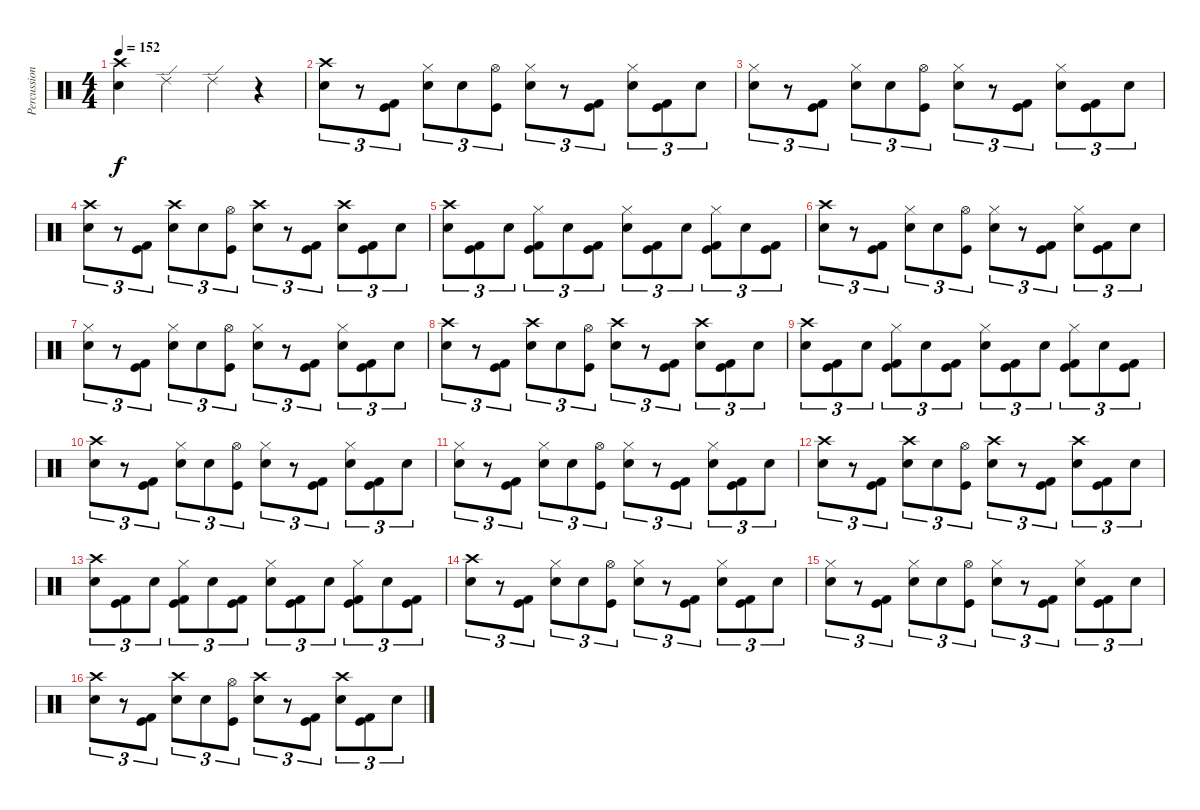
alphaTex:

\track ("Percussion" "Percussion") {instrument percussion}
\staff {score}
\articulation defaults
\ts (4 4)
\tempo 152
\clef neutral
\ks c
("Crash high (hit)" "Electric Snare (hit)").4{dy f} "Ride (edge) 2".4 "Ride (edge) 2".4 r.4 |
("Crash high (hit)" "Electric Snare (hit)").8{tu (3 2)} r.8{tu (3 2)} ("Kick (hit) 2" "Kick (hit)").8{tu (3 2)} ("Hi-Hat (closed)" "Electric Snare (hit)").8{tu (3 2)} "Electric Snare (hit)".8{tu (3 2)} ("Hi-Hat (open)" "Kick (hit)").8{tu (3 2)} ("Hi-Hat (closed)" "Electric Snare (hit)").8{tu (3 2)} r.8{tu (3 2)} ("Kick (hit) 2" "Kick (hit)").8{tu (3 2)} ("Hi-Hat (closed)" "Electric Snare (hit)").8{tu (3 2)} ("Kick (hit) 2" "Kick (hit)").8{tu (3 2)} "Electric Snare (hit)".8{tu (3 2)} |
("Hi-Hat (closed)" "Electric Snare (hit)").8{tu (3 2)} r.8{tu (3 2)} ("Kick (hit) 2" "Kick (hit)").8{tu (3 2)} ("Hi-Hat (closed)" "Electric Snare (hit)").8{tu (3 2)} "Electric Snare (hit)".8{tu (3 2)} ("Hi-Hat (open)" "Kick (hit)").8{tu (3 2)} ("Hi-Hat (closed)" "Electric Snare (hit)").8{tu (3 2)} r.8{tu (3 2)} ("Kick (hit) 2" "Kick (hit)").8{tu (3 2)} ("Hi-Hat (closed)" "Electric Snare (hit)").8{tu (3 2)} ("Kick (hit) 2" "Kick (hit)").8{tu (3 2)} "Electric Snare (hit)".8{tu (3 2)} |
("Crash high (hit)" "Electric Snare (hit)").8{tu (3 2)} r.8{tu (3 2)} ("Kick (hit) 2" "Kick (hit)").8{tu (3 2)} ("Crash high (hit)" "Electric Snare (hit)").8{tu (3 2)} "Electric Snare (hit)".8{tu (3 2)} ("Hi-Hat (open)" "Kick (hit)").8{tu (3 2)} ("Crash high (hit)" "Electric Snare (hit)").8{tu (3 2)} r.8{tu (3 2)} ("Kick (hit) 2" "Kick (hit)").8{tu (3 2)} ("Crash high (hit)" "Electric Snare (hit)").8{tu (3 2)} ("Kick (hit) 2" "Kick (hit)").8{tu (3 2)} "Electric Snare (hit)".8{tu (3 2)} |
("Crash high (hit)" "Electric Snare (hit)").8{tu (3 2)} ("Kick (hit) 2" "Kick (hit)").8{tu (3 2)} "Electric Snare (hit)".8{tu (3 2)} ("Hi-Hat (closed)" "Kick (hit) 2" "Kick (hit)").8{tu (3 2)} "Electric Snare (hit)".8{tu (3 2)} ("Kick (hit) 2" "Kick (hit)").8{tu (3 2)} ("Hi-Hat (closed)" "Electric Snare (hit)").8{tu (3 2)} ("Kick (hit) 2" "Kick (hit)").8{tu (3 2)} "Electric Snare (hit)".8{tu (3 2)} ("Hi-Hat (closed)" "Kick (hit) 2" "Kick (hit)").8{tu (3 2)} "Electric Snare (hit)".8{tu (3 2)} ("Kick (hit) 2" "Kick (hit)").8{tu (3 2)} |
("Crash high (hit)" "Electric Snare (hit)").8{tu (3 2)} r.8{tu (3 2)} ("Kick (hit) 2" "Kick (hit)").8{tu (3 2)} ("Hi-Hat (closed)" "Electric Snare (hit)").8{tu (3 2)} "Electric Snare (hit)".8{tu (3 2)} ("Hi-Hat (open)" "Kick (hit)").8{tu (3 2)} ("Hi-Hat (closed)" "Electric Snare (hit)").8{tu (3 2)} r.8{tu (3 2)} ("Kick (hit) 2" "Kick (hit)").8{tu (3 2)} ("Hi-Hat (closed)" "Electric Snare (hit)").8{tu (3 2)} ("Kick (hit) 2" "Kick (hit)").8{tu (3 2)} "Electric Snare (hit)".8{tu (3 2)} |
("Hi-Hat (closed)" "Electric Snare (hit)").8{tu (3 2)} r.8{tu (3 2)} ("Kick (hit) 2" "Kick (hit)").8{tu (3 2)} ("Hi-Hat (closed)" "Electric Snare (hit)").8{tu (3 2)} "Electric Snare (hit)".8{tu (3 2)} ("Hi-Hat (open)" "Kick (hit)").8{tu (3 2)} ("Hi-Hat (closed)" "Electric Snare (hit)").8{tu (3 2)} r.8{tu (3 2)} ("Kick (hit) 2" "Kick (hit)").8{tu (3 2)} ("Hi-Hat (closed)" "Electric Snare (hit)").8{tu (3 2)} ("Kick (hit) 2" "Kick (hit)").8{tu (3 2)} "Electric Snare (hit)".8{tu (3 2)} |
("Crash high (hit)" "Electric Snare (hit)").8{tu (3 2)} r.8{tu (3 2)} ("Kick (hit) 2" "Kick (hit)").8{tu (3 2)} ("Crash high (hit)" "Electric Snare (hit)").8{tu (3 2)} "Electric Snare (hit)".8{tu (3 2)} ("Hi-Hat (open)" "Kick (hit)").8{tu (3 2)} ("Crash high (hit)" "Electric Snare (hit)").8{tu (3 2)} r.8{tu (3 2)} ("Kick (hit) 2" "Kick (hit)").8{tu (3 2)} ("Crash high (hit)" "Electric Snare (hit)").8{tu (3 2)} ("Kick (hit) 2" "Kick (hit)").8{tu (3 2)} "Electric Snare (hit)".8{tu (3 2)} |
("Crash high (hit)" "Electric Snare (hit)").8{tu (3 2)} ("Kick (hit) 2" "Kick (hit)").8{tu (3 2)} "Electric Snare (hit)".8{tu (3 2)} ("Hi-Hat (closed)" "Kick (hit) 2" "Kick (hit)").8{tu (3 2)} "Electric Snare (hit)".8{tu (3 2)} ("Kick (hit) 2" "Kick (hit)").8{tu (3 2)} ("Hi-Hat (closed)" "Electric Snare (hit)").8{tu (3 2)} ("Kick (hit) 2" "Kick (hit)").8{tu (3 2)} "Electric Snare (hit)".8{tu (3 2)} ("Hi-Hat (closed)" "Kick (hit) 2" "Kick (hit)").8{tu (3 2)} "Electric Snare (hit)".8{tu (3 2)} ("Kick (hit) 2" "Kick (hit)").8{tu (3 2)} |
("Crash high (hit)" "Electric Snare (hit)").8{tu (3 2)} r.8{tu (3 2)} ("Kick (hit) 2" "Kick (hit)").8{tu (3 2)} ("Hi-Hat (closed)" "Electric Snare (hit)").8{tu (3 2)} "Electric Snare (hit)".8{tu (3 2)} ("Hi-Hat (open)" "Kick (hit)").8{tu (3 2)} ("Hi-Hat (closed)" "Electric Snare (hit)").8{tu (3 2)} r.8{tu (3 2)} ("Kick (hit) 2" "Kick (hit)").8{tu (3 2)} ("Hi-Hat (closed)" "Electric Snare (hit)").8{tu (3 2)} ("Kick (hit) 2" "Kick (hit)").8{tu (3 2)} "Electric Snare (hit)".8{tu (3 2)} |
("Hi-Hat (closed)" "Electric Snare (hit)").8{tu (3 2)} r.8{tu (3 2)} ("Kick (hit) 2" "Kick (hit)").8{tu (3 2)} ("Hi-Hat (closed)" "Electric Snare (hit)").8{tu (3 2)} "Electric Snare (hit)".8{tu (3 2)} ("Hi-Hat (open)" "Kick (hit)").8{tu (3 2)} ("Hi-Hat (closed)" "Electric Snare (hit)").8{tu (3 2)} r.8{tu (3 2)} ("Kick (hit) 2" "Kick (hit)").8{tu (3 2)} ("Hi-Hat (closed)" "Electric Snare (hit)").8{tu (3 2)} ("Kick (hit) 2" "Kick (hit)").8{tu (3 2)} "Electric Snare (hit)".8{tu (3 2)} |
("Crash high (hit)" "Electric Snare (hit)").8{tu (3 2)} r.8{tu (3 2)} ("Kick (hit) 2" "Kick (hit)").8{tu (3 2)} ("Crash high (hit)" "Electric Snare (hit)").8{tu (3 2)} "Electric Snare (hit)".8{tu (3 2)} ("Hi-Hat (open)" "Kick (hit)").8{tu (3 2)} ("Crash high (hit)" "Electric Snare (hit)").8{tu (3 2)} r.8{tu (3 2)} ("Kick (hit) 2" "Kick (hit)").8{tu (3 2)} ("Crash high (hit)" "Electric Snare (hit)").8{tu (3 2)} ("Kick (hit) 2" "Kick (hit)").8{tu (3 2)} "Electric Snare (hit)".8{tu (3 2)} |
("Crash high (hit)" "Electric Snare (hit)").8{tu (3 2)} ("Kick (hit) 2" "Kick (hit)").8{tu (3 2)} "Electric Snare (hit)".8{tu (3 2)} ("Hi-Hat (closed)" "Kick (hit) 2" "Kick (hit)").8{tu (3 2)} "Electric Snare (hit)".8{tu (3 2)} ("Kick (hit) 2" "Kick (hit)").8{tu (3 2)} ("Hi-Hat (closed)" "Electric Snare (hit)").8{tu (3 2)} ("Kick (hit) 2" "Kick (hit)").8{tu (3 2)} "Electric Snare (hit)".8{tu (3 2)} ("Hi-Hat (closed)" "Kick (hit) 2" "Kick (hit)").8{tu (3 2)} "Electric Snare (hit)".8{tu (3 2)} ("Kick (hit) 2" "Kick (hit)").8{tu (3 2)} |
("Crash high (hit)" "Electric Snare (hit)").8{tu (3 2)} r.8{tu (3 2)} ("Kick (hit) 2" "Kick (hit)").8{tu (3 2)} ("Hi-Hat (closed)" "Electric Snare (hit)").8{tu (3 2)} "Electric Snare (hit)".8{tu (3 2)} ("Hi-Hat (open)" "Kick (hit)").8{tu (3 2)} ("Hi-Hat (closed)" "Electric Snare (hit)").8{tu (3 2)} r.8{tu (3 2)} ("Kick (hit) 2" "Kick (hit)").8{tu (3 2)} ("Hi-Hat (closed)" "Electric Snare (hit)").8{tu (3 2)} ("Kick (hit) 2" "Kick (hit)").8{tu (3 2)} "Electric Snare (hit)".8{tu (3 2)} |
("Hi-Hat (closed)" "Electric Snare (hit)").8{tu (3 2)} r.8{tu (3 2)} ("Kick (hit) 2" "Kick (hit)").8{tu (3 2)} ("Hi-Hat (closed)" "Electric Snare (hit)").8{tu (3 2)} "Electric Snare (hit)".8{tu (3 2)} ("Hi-Hat (open)" "Kick (hit)").8{tu (3 2)} ("Hi-Hat (closed)" "Electric Snare (hit)").8{tu (3 2)} r.8{tu (3 2)} ("Kick (hit) 2" "Kick (hit)").8{tu (3 2)} ("Hi-Hat (closed)" "Electric Snare (hit)").8{tu (3 2)} ("Kick (hit) 2" "Kick (hit)").8{tu (3 2)} "Electric Snare (hit)".8{tu (3 2)} |
("Crash high (hit)" "Electric Snare (hit)").8{tu (3 2)} r.8{tu (3 2)} ("Kick (hit) 2" "Kick (hit)").8{tu (3 2)} ("Crash high (hit)" "Electric Snare (hit)").8{tu (3 2)} "Electric Snare (hit)".8{tu (3 2)} ("Hi-Hat (open)" "Kick (hit)").8{tu (3 2)} ("Crash high (hit)" "Electric Snare (hit)").8{tu (3 2)} r.8{tu (3 2)} ("Kick (hit) 2" "Kick (hit)").8{tu (3 2)} ("Crash high (hit)" "Electric Snare (hit)").8{tu (3 2)} ("Kick (hit) 2" "Kick (hit)").8{tu (3 2)} "Electric Snare (hit)".8{tu (3 2)}
